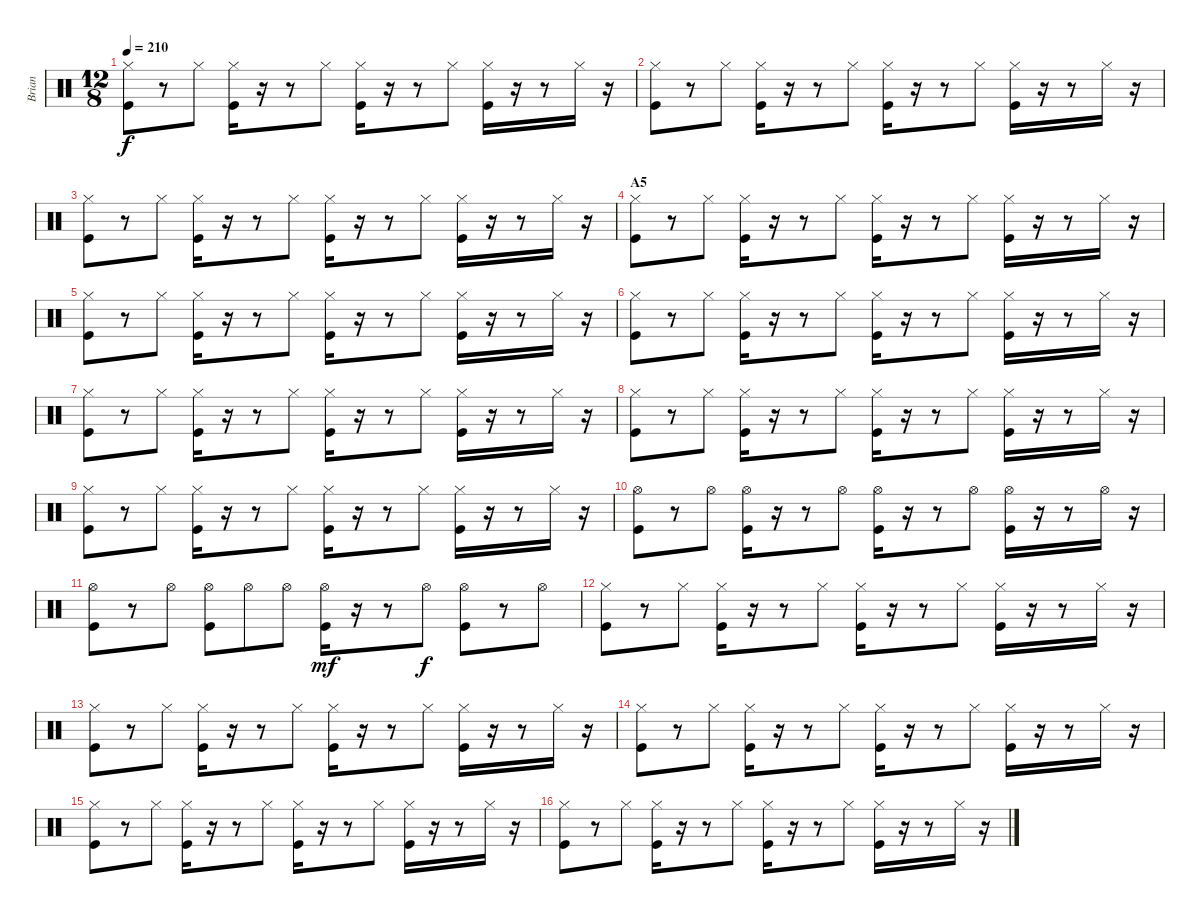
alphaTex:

\track ("Brian" "Brian") {instrument percussion}
\staff {score}
\articulation defaults
\ts (12 8)
\tempo 210
\clef neutral
\ks c
("Hi-Hat (closed)" "Kick (hit)").8{dy f} r.8 "Hi-Hat (closed)".8 ("Hi-Hat (closed)" "Kick (hit)").16 r.16 r.8 "Hi-Hat (closed)".8 ("Hi-Hat (closed)" "Kick (hit)").16 r.16 r.8 "Hi-Hat (closed)".8 ("Hi-Hat (closed)" "Kick (hit)").16 r.16 r.8 "Hi-Hat (closed)".16 r.16 |
("Hi-Hat (closed)" "Kick (hit)").8 r.8 "Hi-Hat (closed)".8 ("Hi-Hat (closed)" "Kick (hit)").16 r.16 r.8 "Hi-Hat (closed)".8 ("Hi-Hat (closed)" "Kick (hit)").16 r.16 r.8 "Hi-Hat (closed)".8 ("Hi-Hat (closed)" "Kick (hit)").16 r.16 r.8 "Hi-Hat (closed)".16 r.16 |
("Hi-Hat (closed)" "Kick (hit)").8 r.8 "Hi-Hat (closed)".8 ("Hi-Hat (closed)" "Kick (hit)").16 r.16 r.8 "Hi-Hat (closed)".8 ("Hi-Hat (closed)" "Kick (hit)").16 r.16 r.8 "Hi-Hat (closed)".8 ("Hi-Hat (closed)" "Kick (hit)").16 r.16 r.8 "Hi-Hat (closed)".16 r.16 |
\section ("" "A5")
("Hi-Hat (closed)" "Kick (hit)").8 r.8 "Hi-Hat (closed)".8 ("Hi-Hat (closed)" "Kick (hit)").16 r.16 r.8 "Hi-Hat (closed)".8 ("Hi-Hat (closed)" "Kick (hit)").16 r.16 r.8 "Hi-Hat (closed)".8 ("Hi-Hat (closed)" "Kick (hit)").16 r.16 r.8 "Hi-Hat (closed)".16 r.16 |
("Hi-Hat (closed)" "Kick (hit)").8 r.8 "Hi-Hat (closed)".8 ("Hi-Hat (closed)" "Kick (hit)").16 r.16 r.8 "Hi-Hat (closed)".8 ("Hi-Hat (closed)" "Kick (hit)").16 r.16 r.8 "Hi-Hat (closed)".8 ("Hi-Hat (closed)" "Kick (hit)").16 r.16 r.8 "Hi-Hat (closed)".16 r.16 |
("Hi-Hat (closed)" "Kick (hit)").8 r.8 "Hi-Hat (closed)".8 ("Hi-Hat (closed)" "Kick (hit)").16 r.16 r.8 "Hi-Hat (closed)".8 ("Hi-Hat (closed)" "Kick (hit)").16 r.16 r.8 "Hi-Hat (closed)".8 ("Hi-Hat (closed)" "Kick (hit)").16 r.16 r.8 "Hi-Hat (closed)".16 r.16 |
("Hi-Hat (closed)" "Kick (hit)").8 r.8 "Hi-Hat (closed)".8 ("Hi-Hat (closed)" "Kick (hit)").16 r.16 r.8 "Hi-Hat (closed)".8 ("Hi-Hat (closed)" "Kick (hit)").16 r.16 r.8 "Hi-Hat (closed)".8 ("Hi-Hat (closed)" "Kick (hit)").16 r.16 r.8 "Hi-Hat (closed)".16 r.16 |
("Hi-Hat (closed)" "Kick (hit)").8 r.8 "Hi-Hat (closed)".8 ("Hi-Hat (closed)" "Kick (hit)").16 r.16 r.8 "Hi-Hat (closed)".8 ("Hi-Hat (closed)" "Kick (hit)").16 r.16 r.8 "Hi-Hat (closed)".8 ("Hi-Hat (closed)" "Kick (hit)").16 r.16 r.8 "Hi-Hat (closed)".16 r.16 |
("Hi-Hat (closed)" "Kick (hit)").8 r.8 "Hi-Hat (closed)".8 ("Hi-Hat (closed)" "Kick (hit)").16 r.16 r.8 "Hi-Hat (closed)".8 ("Hi-Hat (closed)" "Kick (hit)").16 r.16 r.8 "Hi-Hat (closed)".8 ("Hi-Hat (closed)" "Kick (hit)").16 r.16 r.8 "Hi-Hat (closed)".16 r.16 |
("Hi-Hat (open)" "Kick (hit)").8 r.8 "Hi-Hat (open)".8 ("Hi-Hat (open)" "Kick (hit)").16 r.16 r.8 "Hi-Hat (open)".8 ("Hi-Hat (open)" "Kick (hit)").16 r.16 r.8 "Hi-Hat (open)".8 ("Hi-Hat (open)" "Kick (hit)").16 r.16 r.8 "Hi-Hat (open)".16 r.16 |
("Hi-Hat (open)" "Kick (hit)").8 r.8 "Hi-Hat (open)".8 ("Hi-Hat (open)" "Kick (hit)").8 "Hi-Hat (open)".8 "Hi-Hat (open)".8 ("Hi-Hat (open)" "Kick (hit)").16{dy mf} r.16 r.8 "Hi-Hat (open)".8{dy f} ("Hi-Hat (open)" "Kick (hit)").8 r.8 "Hi-Hat (open)".8 |
("Hi-Hat (closed)" "Kick (hit)").8 r.8 "Hi-Hat (closed)".8 ("Hi-Hat (closed)" "Kick (hit)").16 r.16 r.8 "Hi-Hat (closed)".8 ("Hi-Hat (closed)" "Kick (hit)").16 r.16 r.8 "Hi-Hat (closed)".8 ("Hi-Hat (closed)" "Kick (hit)").16 r.16 r.8 "Hi-Hat (closed)".16 r.16 |
("Hi-Hat (closed)" "Kick (hit)").8 r.8 "Hi-Hat (closed)".8 ("Hi-Hat (closed)" "Kick (hit)").16 r.16 r.8 "Hi-Hat (closed)".8 ("Hi-Hat (closed)" "Kick (hit)").16 r.16 r.8 "Hi-Hat (closed)".8 ("Hi-Hat (closed)" "Kick (hit)").16 r.16 r.8 "Hi-Hat (closed)".16 r.16 |
("Hi-Hat (closed)" "Kick (hit)").8 r.8 "Hi-Hat (closed)".8 ("Hi-Hat (closed)" "Kick (hit)").16 r.16 r.8 "Hi-Hat (closed)".8 ("Hi-Hat (closed)" "Kick (hit)").16 r.16 r.8 "Hi-Hat (closed)".8 ("Hi-Hat (closed)" "Kick (hit)").16 r.16 r.8 "Hi-Hat (closed)".16 r.16 |
("Hi-Hat (closed)" "Kick (hit)").8 r.8 "Hi-Hat (closed)".8 ("Hi-Hat (closed)" "Kick (hit)").16 r.16 r.8 "Hi-Hat (closed)".8 ("Hi-Hat (closed)" "Kick (hit)").16 r.16 r.8 "Hi-Hat (closed)".8 ("Hi-Hat (closed)" "Kick (hit)").16 r.16 r.8 "Hi-Hat (closed)".16 r.16 |
("Hi-Hat (closed)" "Kick (hit)").8 r.8 "Hi-Hat (closed)".8 ("Hi-Hat (closed)" "Kick (hit)").16 r.16 r.8 "Hi-Hat (closed)".8 ("Hi-Hat (closed)" "Kick (hit)").16 r.16 r.8 "Hi-Hat (closed)".8 ("Hi-Hat (closed)" "Kick (hit)").16 r.16 r.8 "Hi-Hat (closed)".16 r.16
